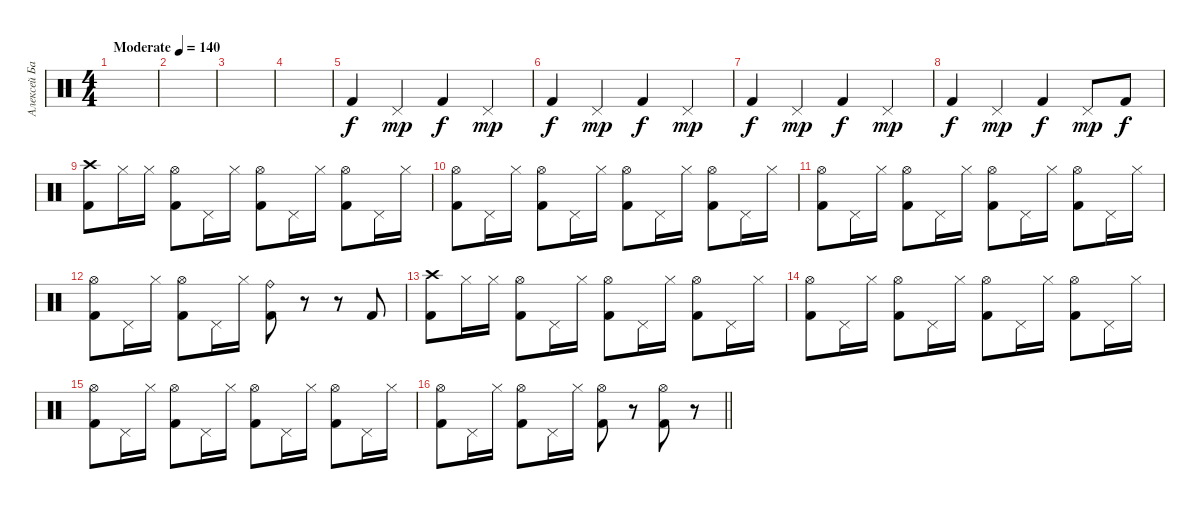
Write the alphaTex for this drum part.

\track ("Алексей Барзилович" "Алексей Ба") {instrument percussion}
\staff {score}
\articulation defaults
\ts (4 4)
\tempo (140 "Moderate")
\clef neutral
\ks c
|
|
|
|
"Kick (hit) 2".4 "Pedal Hi-Hat (hit)".4{dy mp} "Kick (hit) 2".4{dy f} "Pedal Hi-Hat (hit)".4{dy mp} |
"Kick (hit) 2".4{dy f} "Pedal Hi-Hat (hit)".4{dy mp} "Kick (hit) 2".4{dy f} "Pedal Hi-Hat (hit)".4{dy mp} |
"Kick (hit) 2".4{dy f} "Pedal Hi-Hat (hit)".4{dy mp} "Kick (hit) 2".4{dy f} "Pedal Hi-Hat (hit)".4{dy mp} |
"Kick (hit) 2".4{dy f} "Pedal Hi-Hat (hit)".4{dy mp} "Kick (hit) 2".4{dy f} "Pedal Hi-Hat (hit)".8{dy mp} "Kick (hit) 2".8{dy f} |
("Crash high (hit)" "Kick (hit) 2").8 "Hi-Hat (closed)".16 "Hi-Hat (closed)".16 ("Hi-Hat (open)" "Kick (hit) 2").8 "Pedal Hi-Hat (hit)".16 "Hi-Hat (closed)".16 ("Hi-Hat (open)" "Kick (hit) 2").8 "Pedal Hi-Hat (hit)".16 "Hi-Hat (closed)".16 ("Hi-Hat (open)" "Kick (hit) 2").8 "Pedal Hi-Hat (hit)".16 "Hi-Hat (closed)".16 |
("Hi-Hat (open)" "Kick (hit) 2").8 "Pedal Hi-Hat (hit)".16 "Hi-Hat (closed)".16 ("Hi-Hat (open)" "Kick (hit) 2").8 "Pedal Hi-Hat (hit)".16 "Hi-Hat (closed)".16 ("Hi-Hat (open)" "Kick (hit) 2").8 "Pedal Hi-Hat (hit)".16 "Hi-Hat (closed)".16 ("Hi-Hat (open)" "Kick (hit) 2").8 "Pedal Hi-Hat (hit)".16 "Hi-Hat (closed)".16 |
("Hi-Hat (open)" "Kick (hit) 2").8 "Pedal Hi-Hat (hit)".16 "Hi-Hat (closed)".16 ("Hi-Hat (open)" "Kick (hit) 2").8 "Pedal Hi-Hat (hit)".16 "Hi-Hat (closed)".16 ("Hi-Hat (open)" "Kick (hit) 2").8 "Pedal Hi-Hat (hit)".16 "Hi-Hat (closed)".16 ("Hi-Hat (open)" "Kick (hit) 2").8 "Pedal Hi-Hat (hit)".16 "Hi-Hat (closed)".16 |
("Hi-Hat (open)" "Kick (hit) 2").8 "Pedal Hi-Hat (hit)".16 "Hi-Hat (closed)".16 ("Hi-Hat (open)" "Kick (hit) 2").8 "Pedal Hi-Hat (hit)".16 "Hi-Hat (closed)".16 ("Ride (bell)" "Kick (hit) 2").8 r.8 r.8 "Kick (hit) 2".8 |
("Crash high (hit)" "Kick (hit) 2").8 "Hi-Hat (closed)".16 "Hi-Hat (closed)".16 ("Hi-Hat (open)" "Kick (hit) 2").8 "Pedal Hi-Hat (hit)".16 "Hi-Hat (closed)".16 ("Hi-Hat (open)" "Kick (hit) 2").8 "Pedal Hi-Hat (hit)".16 "Hi-Hat (closed)".16 ("Hi-Hat (open)" "Kick (hit) 2").8 "Pedal Hi-Hat (hit)".16 "Hi-Hat (closed)".16 |
("Hi-Hat (open)" "Kick (hit) 2").8 "Pedal Hi-Hat (hit)".16 "Hi-Hat (closed)".16 ("Hi-Hat (open)" "Kick (hit) 2").8 "Pedal Hi-Hat (hit)".16 "Hi-Hat (closed)".16 ("Hi-Hat (open)" "Kick (hit) 2").8 "Pedal Hi-Hat (hit)".16 "Hi-Hat (closed)".16 ("Hi-Hat (open)" "Kick (hit) 2").8 "Pedal Hi-Hat (hit)".16 "Hi-Hat (closed)".16 |
("Hi-Hat (open)" "Kick (hit) 2").8 "Pedal Hi-Hat (hit)".16 "Hi-Hat (closed)".16 ("Hi-Hat (open)" "Kick (hit) 2").8 "Pedal Hi-Hat (hit)".16 "Hi-Hat (closed)".16 ("Hi-Hat (open)" "Kick (hit) 2").8 "Pedal Hi-Hat (hit)".16 "Hi-Hat (closed)".16 ("Hi-Hat (open)" "Kick (hit) 2").8 "Pedal Hi-Hat (hit)".16 "Hi-Hat (closed)".16 |
\barLineRight lightlight
("Hi-Hat (open)" "Kick (hit) 2").8 "Pedal Hi-Hat (hit)".16 "Hi-Hat (closed)".16 ("Hi-Hat (open)" "Kick (hit) 2").8 "Pedal Hi-Hat (hit)".16 "Hi-Hat (closed)".16 ("Hi-Hat (open)" "Kick (hit) 2").8 r.8 ("Hi-Hat (open)" "Kick (hit) 2").8 r.8
